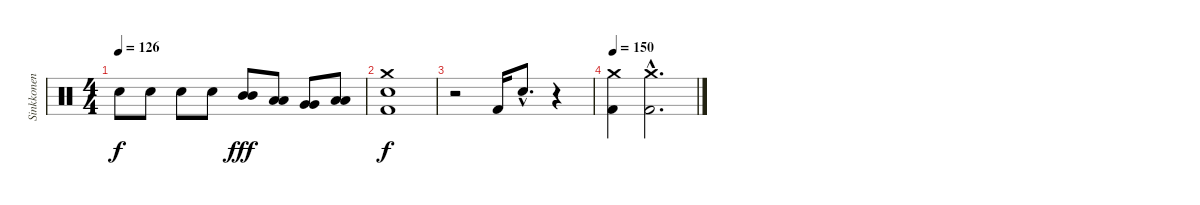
\track ("Sinkkonen" "Sinkkonen") {instrument percussion}
\staff {score}
\articulation defaults
\ts (4 4)
\tempo 126
\clef neutral
\ks c "Snare (hit) 2".8{dy f} "Snare (hit) 2".8 "Snare (hit) 2".8 "Snare (hit) 2".8
("Mid Tom (hit)" "Mid Tom (hit)").8{dy fff} ("Low Tom (hit)" "Low Tom (hit)").8 ("Very Low Tom (hit)" "Very Low Tom (hit)").8 ("Low Floor Tom (hit)" "Low Floor Tom (hit)").8 |
("Kick (hit) 2" "Crash medium (hit)" "Snare (hit) 2").1{dy f} |
r.2 "Kick (hit) 2".16 "Snare (hit) 2"{hac}.8{d} r.4 |
\tempo 150
("Kick (hit) 2" "Crash medium (hit)").4 ("Kick (hit) 2"{hac} "Crash medium (hit)"{hac}).2{d}
